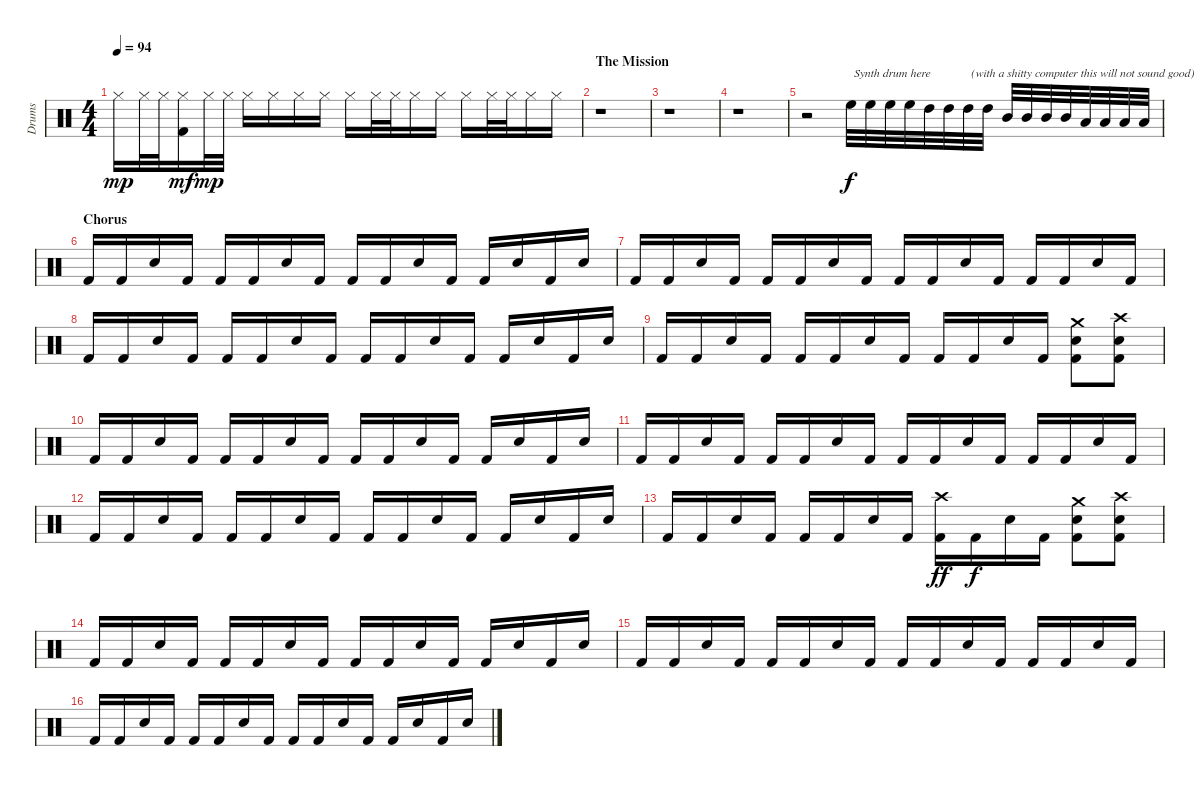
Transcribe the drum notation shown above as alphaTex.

\track ("Drums" "Drums") {instrument percussion}
\staff {score}
\articulation defaults
\ts (4 4)
\tempo 94
\clef neutral
\ks c "Hi-Hat (closed)".16{dy mp} "Hi-Hat (closed)".32 "Hi-Hat (closed)".32
("Hi-Hat (closed)" "Kick (hit) 2").16{dy mf} "Hi-Hat (closed)".32{dy mp} "Hi-Hat (closed)".32 "Hi-Hat (closed)".16 "Hi-Hat (closed)".16 "Hi-Hat (closed)".16 "Hi-Hat (closed)".16 "Hi-Hat (closed)".16 "Hi-Hat (closed)".32 "Hi-Hat (closed)".32 "Hi-Hat (closed)".16 "Hi-Hat (closed)".16 "Hi-Hat (closed)".16 "Hi-Hat (closed)".32 "Hi-Hat (closed)".32 "Hi-Hat (closed)".16 "Hi-Hat (closed)".16 |
\section ("" "The Mission")
r.1 |
r.1 |
r.1 |
r.2 "High Floor Tom (hit)".32{txt " Synth drum here" dy f} "High Floor Tom (hit)".32 "High Floor Tom (hit)".32 "High Floor Tom (hit)".32 "High Tom (hit)".32 "High Tom (hit)".32 "High Tom (hit)".32{txt " (with a shitty computer this will not sound good)"} "High Tom (hit)".32 "Mid Tom (hit)".32 "Mid Tom (hit)".32 "Mid Tom (hit)".32 "Mid Tom (hit)".32 "Low Tom (hit)".32 "Low Tom (hit)".32 "Low Tom (hit)".32 "Low Tom (hit)".32 |
\section ("" "Chorus")
"Kick (hit) 2".16 "Kick (hit) 2".16 "Snare (hit) 2".16 "Kick (hit) 2".16 "Kick (hit) 2".16 "Kick (hit) 2".16 "Snare (hit) 2".16 "Kick (hit) 2".16 "Kick (hit) 2".16 "Kick (hit) 2".16 "Snare (hit) 2".16 "Kick (hit) 2".16 "Kick (hit) 2".16 "Snare (hit) 2".16 "Kick (hit) 2".16 "Snare (hit) 2".16 |
"Kick (hit) 2".16 "Kick (hit) 2".16 "Snare (hit) 2".16 "Kick (hit) 2".16 "Kick (hit) 2".16 "Kick (hit) 2".16 "Snare (hit) 2".16 "Kick (hit) 2".16 "Kick (hit) 2".16 "Kick (hit) 2".16 "Snare (hit) 2".16 "Kick (hit) 2".16 "Kick (hit) 2".16 "Kick (hit) 2".16 "Snare (hit) 2".16 "Kick (hit) 2".16 |
"Kick (hit) 2".16 "Kick (hit) 2".16 "Snare (hit) 2".16 "Kick (hit) 2".16 "Kick (hit) 2".16 "Kick (hit) 2".16 "Snare (hit) 2".16 "Kick (hit) 2".16 "Kick (hit) 2".16 "Kick (hit) 2".16 "Snare (hit) 2".16 "Kick (hit) 2".16 "Kick (hit) 2".16 "Snare (hit) 2".16 "Kick (hit) 2".16 "Snare (hit) 2".16 |
"Kick (hit) 2".16 "Kick (hit) 2".16 "Snare (hit) 2".16 "Kick (hit) 2".16 "Kick (hit) 2".16 "Kick (hit) 2".16 "Snare (hit) 2".16 "Kick (hit) 2".16 "Kick (hit) 2".16 "Kick (hit) 2".16 "Snare (hit) 2".16 "Kick (hit) 2".16 ("Crash medium (hit)" "Snare (hit) 2" "Kick (hit) 2").8 ("Crash high (hit)" "Snare (hit) 2" "Kick (hit) 2").8 |
"Kick (hit) 2".16 "Kick (hit) 2".16 "Snare (hit) 2".16 "Kick (hit) 2".16 "Kick (hit) 2".16 "Kick (hit) 2".16 "Snare (hit) 2".16 "Kick (hit) 2".16 "Kick (hit) 2".16 "Kick (hit) 2".16 "Snare (hit) 2".16 "Kick (hit) 2".16 "Kick (hit) 2".16 "Snare (hit) 2".16 "Kick (hit) 2".16 "Snare (hit) 2".16 |
"Kick (hit) 2".16 "Kick (hit) 2".16 "Snare (hit) 2".16 "Kick (hit) 2".16 "Kick (hit) 2".16 "Kick (hit) 2".16 "Snare (hit) 2".16 "Kick (hit) 2".16 "Kick (hit) 2".16 "Kick (hit) 2".16 "Snare (hit) 2".16 "Kick (hit) 2".16 "Kick (hit) 2".16 "Kick (hit) 2".16 "Snare (hit) 2".16 "Kick (hit) 2".16 |
"Kick (hit) 2".16 "Kick (hit) 2".16 "Snare (hit) 2".16 "Kick (hit) 2".16 "Kick (hit) 2".16 "Kick (hit) 2".16 "Snare (hit) 2".16 "Kick (hit) 2".16 "Kick (hit) 2".16 "Kick (hit) 2".16 "Snare (hit) 2".16 "Kick (hit) 2".16 "Kick (hit) 2".16 "Snare (hit) 2".16 "Kick (hit) 2".16 "Snare (hit) 2".16 |
"Kick (hit) 2".16 "Kick (hit) 2".16 "Snare (hit) 2".16 "Kick (hit) 2".16 "Kick (hit) 2".16 "Kick (hit) 2".16 "Snare (hit) 2".16 "Kick (hit) 2".16 ("Crash high (hit)" "Kick (hit) 2").16{dy ff} "Kick (hit) 2".16{dy f} "Snare (hit) 2".16 "Kick (hit) 2".16 ("Crash medium (hit)" "Snare (hit) 2" "Kick (hit) 2").8 ("Crash high (hit)" "Snare (hit) 2" "Kick (hit) 2").8 |
"Kick (hit) 2".16 "Kick (hit) 2".16 "Snare (hit) 2".16 "Kick (hit) 2".16 "Kick (hit) 2".16 "Kick (hit) 2".16 "Snare (hit) 2".16 "Kick (hit) 2".16 "Kick (hit) 2".16 "Kick (hit) 2".16 "Snare (hit) 2".16 "Kick (hit) 2".16 "Kick (hit) 2".16 "Snare (hit) 2".16 "Kick (hit) 2".16 "Snare (hit) 2".16 |
"Kick (hit) 2".16 "Kick (hit) 2".16 "Snare (hit) 2".16 "Kick (hit) 2".16 "Kick (hit) 2".16 "Kick (hit) 2".16 "Snare (hit) 2".16 "Kick (hit) 2".16 "Kick (hit) 2".16 "Kick (hit) 2".16 "Snare (hit) 2".16 "Kick (hit) 2".16 "Kick (hit) 2".16 "Kick (hit) 2".16 "Snare (hit) 2".16 "Kick (hit) 2".16 |
"Kick (hit) 2".16 "Kick (hit) 2".16 "Snare (hit) 2".16 "Kick (hit) 2".16 "Kick (hit) 2".16 "Kick (hit) 2".16 "Snare (hit) 2".16 "Kick (hit) 2".16 "Kick (hit) 2".16 "Kick (hit) 2".16 "Snare (hit) 2".16 "Kick (hit) 2".16 "Kick (hit) 2".16 "Snare (hit) 2".16 "Kick (hit) 2".16 "Snare (hit) 2".16
